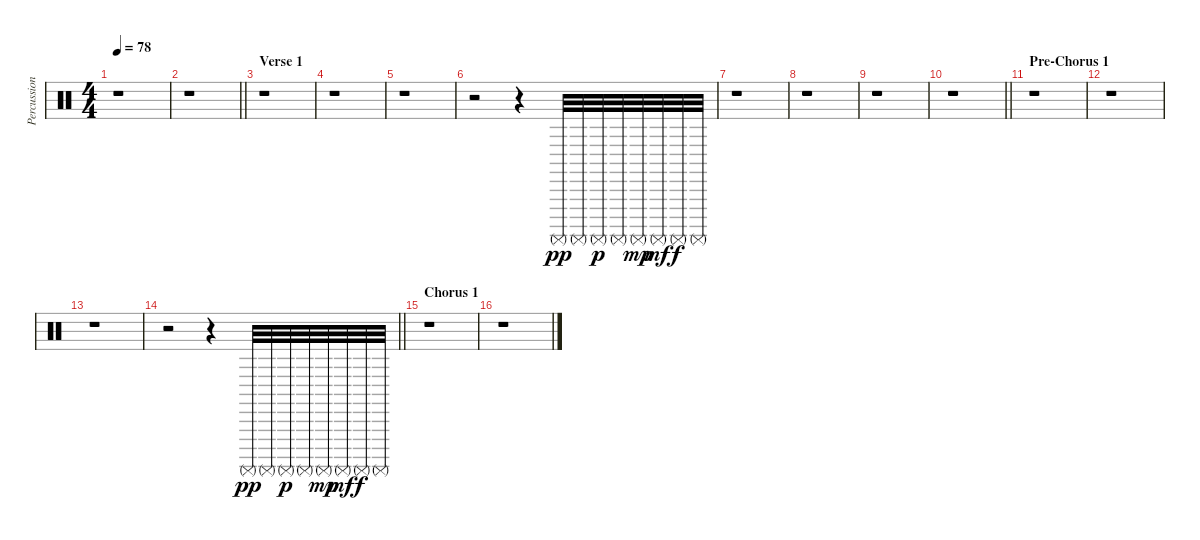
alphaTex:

\track ("Percussion" "Percussion") {instrument percussion}
\staff {score}
\articulation defaults
\ts (4 4)
\tempo 78
\clef neutral
\ks c
r.1{dy f} |
\barLineRight lightlight
r.1 |
\section ("" "Verse 1")
r.1 |
r.1 |
r.1 |
r.2 r.4 "Surdo (mute)".32{dy pp} "Surdo (mute)".32 "Surdo (mute)".32{dy p} "Surdo (mute)".32 "Surdo (mute)".32{dy mp} "Surdo (mute)".32{dy mf} "Surdo (mute)".32{dy f} "Surdo (mute)".32 |
r.1 |
r.1 |
r.1 |
\barLineRight lightlight
r.1 |
\section ("" "Pre-Chorus 1")
r.1 |
r.1 |
r.1 |
\barLineRight lightlight
r.2 r.4 "Surdo (mute)".32{dy pp} "Surdo (mute)".32 "Surdo (mute)".32{dy p} "Surdo (mute)".32 "Surdo (mute)".32{dy mp} "Surdo (mute)".32{dy mf} "Surdo (mute)".32{dy f} "Surdo (mute)".32 |
\section ("" "Chorus 1")
r.1 |
r.1
